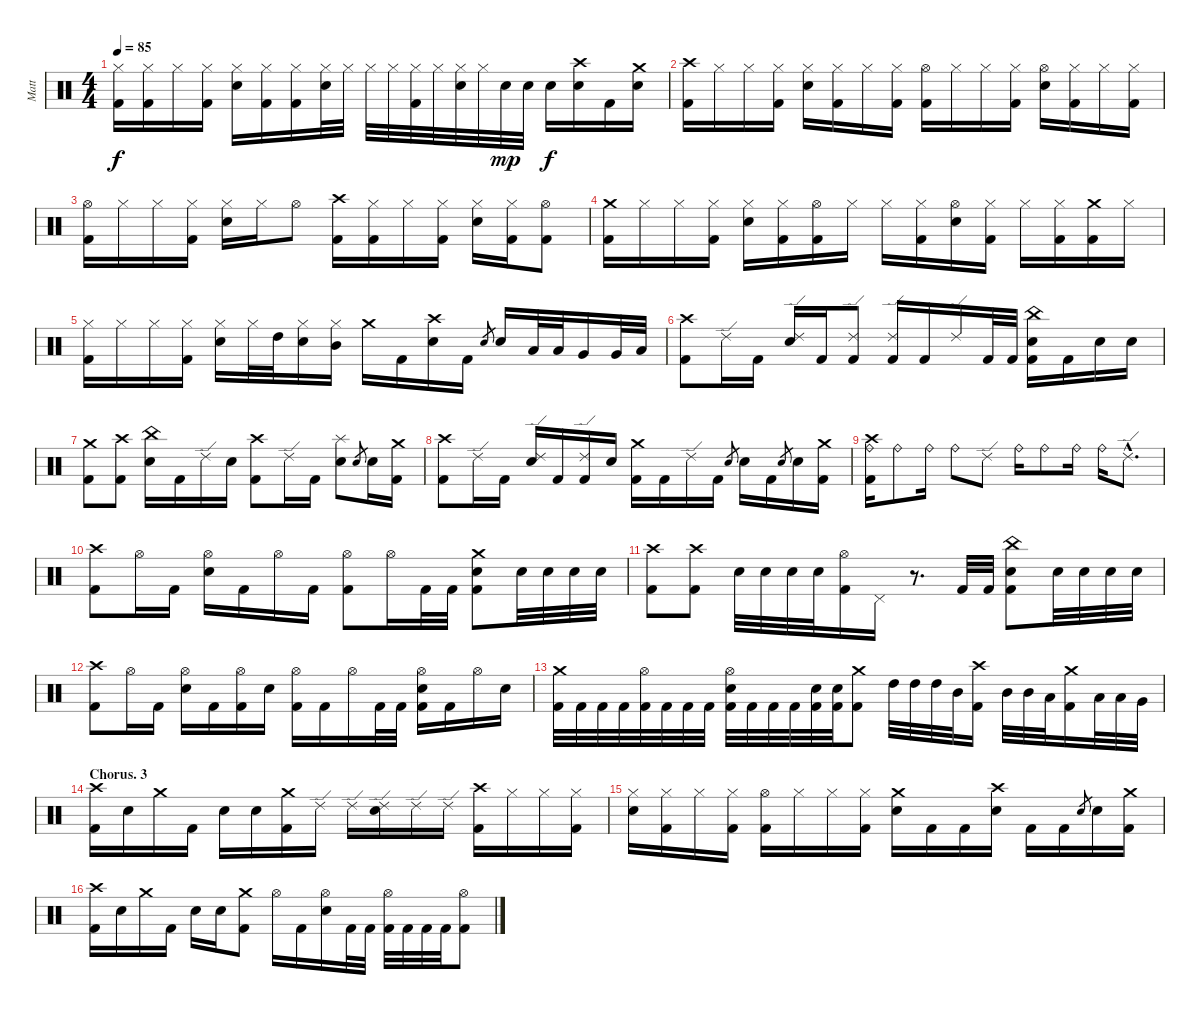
\track ("Matt" "Matt") {instrument percussion}
\staff {score}
\articulation defaults
\ts (4 4)
\tempo 85
\clef neutral
\ks c
("Hi-Hat (closed)" "Kick (hit) 2").16{dy f} ("Hi-Hat (closed)" "Kick (hit) 2").16 "Hi-Hat (closed)".16 ("Hi-Hat (closed)" "Kick (hit) 2").16 ("Hi-Hat (closed)" "Electric Snare (hit)").16 ("Hi-Hat (closed)" "Kick (hit) 2").16 ("Hi-Hat (closed)" "Kick (hit) 2").16 ("Hi-Hat (closed)" "Electric Snare (hit)").32 "Hi-Hat (closed)".32 "Hi-Hat (closed)".32 "Hi-Hat (closed)".32 ("Hi-Hat (closed)" "Kick (hit) 2").32 "Hi-Hat (closed)".32 ("Hi-Hat (closed)" "Electric Snare (hit)").32 "Hi-Hat (closed)".32 "Electric Snare (hit)".32{dy mp} "Electric Snare (hit)".32 "Electric Snare (hit)".16{dy f} ("Crash high (hit)" "Electric Snare (hit)").16 "Kick (hit) 2".16 ("Crash medium (hit)" "Electric Snare (hit)").16 |
("Crash high (hit)" "Kick (hit) 2").16 "Hi-Hat (closed)".16 "Hi-Hat (closed)".16 ("Hi-Hat (closed)" "Kick (hit) 2").16 ("Hi-Hat (closed)" "Electric Snare (hit)").16 ("Hi-Hat (closed)" "Kick (hit) 2").16 "Hi-Hat (closed)".16 ("Hi-Hat (closed)" "Kick (hit) 2").16 ("Hi-Hat (open)" "Kick (hit) 2").16 "Hi-Hat (closed)".16 "Hi-Hat (closed)".16 ("Hi-Hat (closed)" "Kick (hit) 2").16 ("Hi-Hat (open)" "Electric Snare (hit)").16 ("Hi-Hat (closed)" "Kick (hit) 2").16 "Hi-Hat (closed)".16 ("Hi-Hat (closed)" "Kick (hit) 2").16 |
("Hi-Hat (open)" "Kick (hit) 2").16 "Hi-Hat (closed)".16 "Hi-Hat (closed)".16 ("Hi-Hat (closed)" "Kick (hit) 2").16 ("Hi-Hat (closed)" "Electric Snare (hit)").16 "Hi-Hat (closed)".16 "Hi-Hat (open)".8 ("Crash high (hit)" "Kick (hit) 2").16 ("Hi-Hat (closed)" "Kick (hit) 2").16 "Hi-Hat (closed)".16 ("Hi-Hat (closed)" "Kick (hit) 2").16 ("Hi-Hat (closed)" "Electric Snare (hit)").16 ("Hi-Hat (closed)" "Kick (hit) 2").16 ("Hi-Hat (open)" "Kick (hit) 2").8 |
("Crash medium (hit)" "Kick (hit) 2").16 "Hi-Hat (closed)".16 "Hi-Hat (closed)".16 ("Hi-Hat (closed)" "Kick (hit) 2").16 ("Hi-Hat (closed)" "Electric Snare (hit)").16 ("Hi-Hat (closed)" "Kick (hit) 2").16 ("Hi-Hat (open)" "Kick (hit) 2").16 "Hi-Hat (closed)".16 "Hi-Hat (closed)".16 ("Hi-Hat (closed)" "Kick (hit) 2").16 ("Hi-Hat (open)" "Electric Snare (hit)").16 ("Hi-Hat (closed)" "Kick (hit) 2").16 "Hi-Hat (closed)".16 ("Hi-Hat (closed)" "Kick (hit) 2").16 ("Crash medium (hit)" "Kick (hit) 2").16 "Hi-Hat (closed)".16 |
("Hi-Hat (closed)" "Kick (hit) 2").16 "Hi-Hat (closed)".16 "Hi-Hat (closed)".16 ("Hi-Hat (closed)" "Kick (hit) 2").16 ("Hi-Hat (closed)" "Electric Snare (hit)").16 "Hi-Hat (closed)".32 "High Tom (hit)".32 ("Hi-Hat (closed)" "Electric Snare (hit)").16 ("Hi-Hat (closed)" "Mid Tom (hit)").16 "Crash medium (hit)".16 "Kick (hit) 2".16 ("Crash high (hit)" "Electric Snare (hit)").16 "Kick (hit) 2".16 "Electric Snare (hit)".8{gr} "Electric Snare (hit)".16 "Low Tom (hit)".32 "Low Tom (hit)".32 "Very Low Tom (hit)".16 "Very Low Tom (hit)".32 "Low Floor Tom (hit)".32 |
("Crash high (hit)" "Kick (hit) 2").8 "Ride (edge) 2".16 "Kick (hit) 2".16 ("Ride (edge) 2" "Electric Snare (hit)").16 "Kick (hit) 2".16 ("Ride (edge) 2" "Kick (hit) 2").8 ("Ride (edge) 2" "Kick (hit) 2").16 "Kick (hit) 2".16 "Ride (edge) 2".16 "Kick (hit) 2".32 "Kick (hit) 2".32 ("China (hit)" "Electric Snare (hit)" "Kick (hit) 2").16 "Kick (hit) 2".16 "Electric Snare (hit)".16 "Electric Snare (hit)".16 |
("Crash medium (hit)" "Kick (hit) 2").8 ("Crash high (hit)" "Kick (hit) 2").8 ("China (hit)" "Electric Snare (hit)").16 "Kick (hit) 2".16 "Ride (edge) 2".16 "Electric Snare (hit)".16 ("Crash high (hit)" "Kick (hit) 2").8 "Ride (edge) 2".16 "Kick (hit) 2".16 ("Splash (hit)" "Electric Snare (hit)").8 "Electric Snare (hit)".8{gr} "Electric Snare (hit)".16 ("Crash medium (hit)" "Kick (hit) 2").16 |
("Crash high (hit)" "Kick (hit) 2").8 "Ride (edge) 2".16 "Kick (hit) 2".16 ("Ride (edge) 2" "Electric Snare (hit)").16 "Kick (hit) 2".16 ("Ride (edge) 2" "Kick (hit) 2").16 "Electric Snare (hit)".16 ("Crash medium (hit)" "Kick (hit) 2").16 "Kick (hit) 2".16 "Ride (edge) 2".16 "Kick (hit) 2".16 "Electric Snare (hit)".8{gr} "Electric Snare (hit)".16 "Kick (hit) 2".16 "Electric Snare (hit)".8{gr} "Electric Snare (hit)".16 ("Crash medium (hit)" "Kick (hit) 2").16 |
("Crash high (hit)" "Ride (bell)" "Kick (hit) 2").16 "Ride (bell)".8 "Ride (bell)".16 "Ride (bell)".8 "Ride (edge) 2".8 "Ride (bell)".16 "Ride (bell)".8 "Ride (bell)".16 "Ride (bell)".16 "Ride (edge) 2"{hac}.8{d} |
("Crash high (hit)" "Kick (hit) 2").8 "Hi-Hat (open)".16 "Kick (hit) 2".16 ("Hi-Hat (open)" "Electric Snare (hit)").16 "Kick (hit) 2".16 "Hi-Hat (open)".16 "Kick (hit) 2".16 ("Hi-Hat (open)" "Kick (hit) 2").8 "Hi-Hat (open)".16 "Kick (hit) 2".32 "Kick (hit) 2".32 ("Crash medium (hit)" "Electric Snare (hit)" "Kick (hit) 2").8 "Electric Snare (hit)".32 "Electric Snare (hit)".32 "Electric Snare (hit)".32 "Electric Snare (hit)".32 |
("Crash high (hit)" "Kick (hit) 2").8 ("Crash high (hit)" "Kick (hit) 2").8 "Electric Snare (hit)".32 "Electric Snare (hit)".32 "Electric Snare (hit)".32 "Electric Snare (hit)".32 ("Hi-Hat (open)" "Kick (hit) 2").16 "Pedal Hi-Hat (hit)".16 r.8{d} "Kick (hit) 2".32 "Kick (hit) 2".32 ("China (hit)" "Electric Snare (hit)" "Kick (hit) 2").8 "Electric Snare (hit)".32 "Electric Snare (hit)".32 "Electric Snare (hit)".32 "Electric Snare (hit)".32 |
("Crash high (hit)" "Kick (hit) 2").8 "Hi-Hat (open)".16 "Kick (hit) 2".16 ("Hi-Hat (open)" "Electric Snare (hit)").16 "Kick (hit) 2".16 ("Hi-Hat (open)" "Kick (hit) 2").16 "Electric Snare (hit)".16 ("Hi-Hat (open)" "Kick (hit) 2").16 "Kick (hit) 2".16 "Hi-Hat (open)".16 "Kick (hit) 2".32 "Kick (hit) 2".32 ("Hi-Hat (open)" "Electric Snare (hit)" "Kick (hit) 2").16 "Kick (hit) 2".16 "Hi-Hat (open)".16 "Electric Snare (hit)".16 |
("Crash medium (hit)" "Kick (hit) 2").32 "Kick (hit) 2".32 "Kick (hit) 2".32 "Kick (hit) 2".32 ("Hi-Hat (open)" "Kick (hit) 2").32 "Kick (hit) 2".32 "Kick (hit) 2".32 "Kick (hit) 2".32 ("Hi-Hat (open)" "Electric Snare (hit)" "Kick (hit) 2").32 "Kick (hit) 2".32 "Kick (hit) 2".32 "Kick (hit) 2".32 ("Electric Snare (hit)" "Kick (hit) 2").32 ("Electric Snare (hit)" "Kick (hit) 2").32 ("Crash medium (hit)" "Kick (hit) 2").8 "High Tom (hit)".32 "High Tom (hit)".32 "High Tom (hit)".32 "Mid Tom (hit)".32 ("Crash high (hit)" "Kick (hit) 2").16 "Mid Tom (hit)".32 "Mid Tom (hit)".32 "Low Tom (hit)".32 ("Crash medium (hit)" "Kick (hit) 2").16 "Low Tom (hit)".32 "Low Tom (hit)".32 "Very Low Tom (hit)".32 |
\section ("" "Chorus. 3")
("Crash high (hit)" "Kick (hit) 2").16 "Electric Snare (hit)".16 "Crash medium (hit)".16 "Kick (hit) 2".16 "Electric Snare (hit)".16 "Electric Snare (hit)".16 ("Crash medium (hit)" "Kick (hit) 2").16 "Ride (edge) 2".16 "Ride (edge) 2".16 ("Ride (edge) 2" "Electric Snare (hit)").16 "Ride (edge) 2".16 "Ride (edge) 2".16 ("Crash high (hit)" "Kick (hit) 2").16 "Hi-Hat (closed)".16 "Hi-Hat (closed)".16 ("Hi-Hat (closed)" "Kick (hit) 2").16 |
("Hi-Hat (closed)" "Electric Snare (hit)").16 ("Hi-Hat (closed)" "Kick (hit) 2").16 "Hi-Hat (closed)".16 ("Hi-Hat (closed)" "Kick (hit) 2").16 ("Hi-Hat (open)" "Kick (hit) 2").16 "Hi-Hat (closed)".16 "Hi-Hat (closed)".16 ("Hi-Hat (closed)" "Kick (hit) 2").16 ("Crash medium (hit)" "Electric Snare (hit)").16 "Kick (hit) 2".16 "Kick (hit) 2".16 ("Crash high (hit)" "Electric Snare (hit)").16 "Kick (hit) 2".16 "Kick (hit) 2".16 "Electric Snare (hit)".8{gr} "Electric Snare (hit)".16 ("Crash medium (hit)" "Kick (hit) 2").16 |
("Crash high (hit)" "Kick (hit) 2").16 "Electric Snare (hit)".16 "Crash medium (hit)".16 "Kick (hit) 2".16 "Electric Snare (hit)".16 "Electric Snare (hit)".16 ("Crash medium (hit)" "Kick (hit) 2").8 "Hi-Hat (open)".16 "Kick (hit) 2".16 ("Hi-Hat (open)" "Electric Snare (hit)").16 "Kick (hit) 2".32 "Kick (hit) 2".32 ("Hi-Hat (open)" "Kick (hit) 2").32 "Kick (hit) 2".32 "Kick (hit) 2".32 "Kick (hit) 2".32 ("Hi-Hat (open)" "Kick (hit) 2").8
